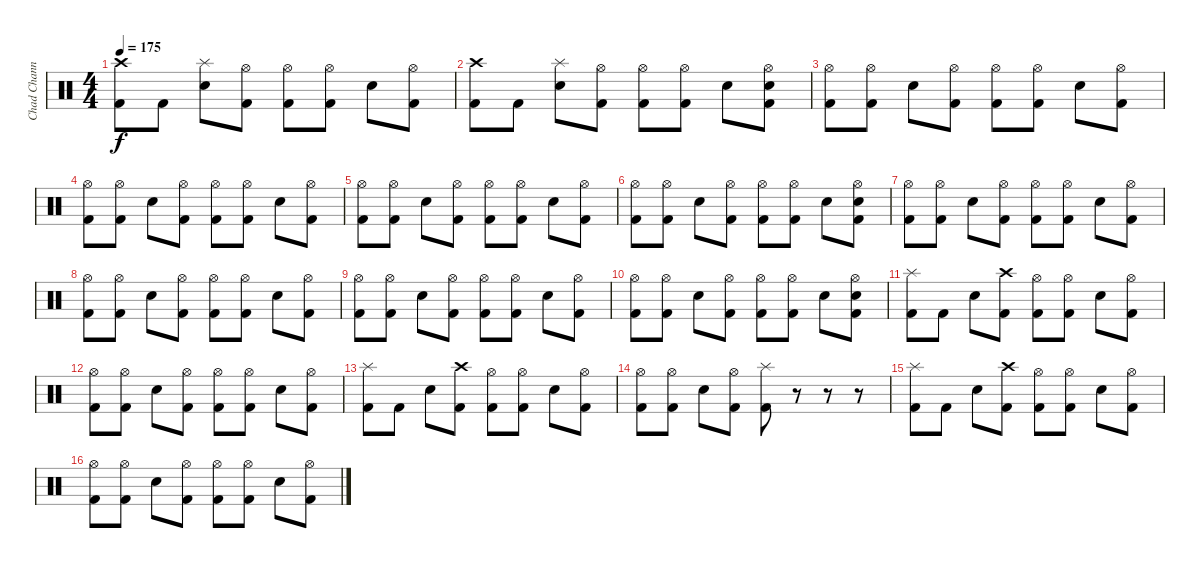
\track ("Chad Channing" "Chad Chann") {instrument percussion}
\staff {score}
\articulation defaults
\ts (4 4)
\tempo 175
\clef neutral
\ks c
("Crash high (hit)" "Kick (hit) 2").8{dy f} "Kick (hit) 2".8 ("Splash (hit)" "Snare (hit) 2").8 ("Hi-Hat (open)" "Kick (hit) 2").8 ("Hi-Hat (open)" "Kick (hit) 2").8 ("Hi-Hat (open)" "Kick (hit) 2").8 "Snare (hit) 2".8 ("Hi-Hat (open)" "Kick (hit) 2").8 |
("Crash high (hit)" "Kick (hit) 2").8 "Kick (hit) 2".8 ("Splash (hit)" "Snare (hit) 2").8 ("Hi-Hat (open)" "Kick (hit) 2").8 ("Hi-Hat (open)" "Kick (hit) 2").8 ("Hi-Hat (open)" "Kick (hit) 2").8 "Snare (hit) 2".8 ("Hi-Hat (open)" "Snare (hit) 2" "Kick (hit) 2").8 |
("Hi-Hat (open)" "Kick (hit) 2").8 ("Hi-Hat (open)" "Kick (hit) 2").8 "Snare (hit) 2".8 ("Hi-Hat (open)" "Kick (hit) 2").8 ("Hi-Hat (open)" "Kick (hit) 2").8 ("Hi-Hat (open)" "Kick (hit) 2").8 "Snare (hit) 2".8 ("Hi-Hat (open)" "Kick (hit) 2").8 |
("Hi-Hat (open)" "Kick (hit) 2").8 ("Hi-Hat (open)" "Kick (hit) 2").8 "Snare (hit) 2".8 ("Hi-Hat (open)" "Kick (hit) 2").8 ("Hi-Hat (open)" "Kick (hit) 2").8 ("Hi-Hat (open)" "Kick (hit) 2").8 "Snare (hit) 2".8 ("Hi-Hat (open)" "Kick (hit) 2").8 |
("Hi-Hat (open)" "Kick (hit) 2").8 ("Hi-Hat (open)" "Kick (hit) 2").8 "Snare (hit) 2".8 ("Hi-Hat (open)" "Kick (hit) 2").8 ("Hi-Hat (open)" "Kick (hit) 2").8 ("Hi-Hat (open)" "Kick (hit) 2").8 "Snare (hit) 2".8 ("Hi-Hat (open)" "Kick (hit) 2").8 |
("Hi-Hat (open)" "Kick (hit) 2").8 ("Hi-Hat (open)" "Kick (hit) 2").8 "Snare (hit) 2".8 ("Hi-Hat (open)" "Kick (hit) 2").8 ("Hi-Hat (open)" "Kick (hit) 2").8 ("Hi-Hat (open)" "Kick (hit) 2").8 "Snare (hit) 2".8 ("Hi-Hat (open)" "Snare (hit) 2" "Kick (hit) 2").8 |
("Hi-Hat (open)" "Kick (hit) 2").8 ("Hi-Hat (open)" "Kick (hit) 2").8 "Snare (hit) 2".8 ("Hi-Hat (open)" "Kick (hit) 2").8 ("Hi-Hat (open)" "Kick (hit) 2").8 ("Hi-Hat (open)" "Kick (hit) 2").8 "Snare (hit) 2".8 ("Hi-Hat (open)" "Kick (hit) 2").8 |
("Hi-Hat (open)" "Kick (hit) 2").8 ("Hi-Hat (open)" "Kick (hit) 2").8 "Snare (hit) 2".8 ("Hi-Hat (open)" "Kick (hit) 2").8 ("Hi-Hat (open)" "Kick (hit) 2").8 ("Hi-Hat (open)" "Kick (hit) 2").8 "Snare (hit) 2".8 ("Hi-Hat (open)" "Kick (hit) 2").8 |
("Hi-Hat (open)" "Kick (hit) 2").8 ("Hi-Hat (open)" "Kick (hit) 2").8 "Snare (hit) 2".8 ("Hi-Hat (open)" "Kick (hit) 2").8 ("Hi-Hat (open)" "Kick (hit) 2").8 ("Hi-Hat (open)" "Kick (hit) 2").8 "Snare (hit) 2".8 ("Hi-Hat (open)" "Kick (hit) 2").8 |
("Hi-Hat (open)" "Kick (hit) 2").8 ("Hi-Hat (open)" "Kick (hit) 2").8 "Snare (hit) 2".8 ("Hi-Hat (open)" "Kick (hit) 2").8 ("Hi-Hat (open)" "Kick (hit) 2").8 ("Hi-Hat (open)" "Kick (hit) 2").8 "Snare (hit) 2".8 ("Hi-Hat (open)" "Snare (hit) 2" "Kick (hit) 2").8 |
("Splash (hit)" "Kick (hit) 2").8 "Kick (hit) 2".8 "Snare (hit) 2".8 ("Crash high (hit)" "Kick (hit) 2").8 ("Hi-Hat (open)" "Kick (hit) 2").8 ("Hi-Hat (open)" "Kick (hit) 2").8 "Snare (hit) 2".8 ("Hi-Hat (open)" "Kick (hit) 2").8 |
("Hi-Hat (open)" "Kick (hit) 2").8 ("Hi-Hat (open)" "Kick (hit) 2").8 "Snare (hit) 2".8 ("Hi-Hat (open)" "Kick (hit) 2").8 ("Hi-Hat (open)" "Kick (hit) 2").8 ("Hi-Hat (open)" "Kick (hit) 2").8 "Snare (hit) 2".8 ("Hi-Hat (open)" "Kick (hit) 2").8 |
("Splash (hit)" "Kick (hit) 2").8 "Kick (hit) 2".8 "Snare (hit) 2".8 ("Crash high (hit)" "Kick (hit) 2").8 ("Hi-Hat (open)" "Kick (hit) 2").8 ("Hi-Hat (open)" "Kick (hit) 2").8 "Snare (hit) 2".8 ("Hi-Hat (open)" "Kick (hit) 2").8 |
("Hi-Hat (open)" "Kick (hit) 2").8 ("Hi-Hat (open)" "Kick (hit) 2").8 "Snare (hit) 2".8 ("Hi-Hat (open)" "Kick (hit) 2").8 ("Splash (hit)" "Kick (hit) 2").8 r.8 r.8 r.8 |
("Splash (hit)" "Kick (hit) 2").8 "Kick (hit) 2".8 "Snare (hit) 2".8 ("Crash high (hit)" "Kick (hit) 2").8 ("Hi-Hat (open)" "Kick (hit) 2").8 ("Hi-Hat (open)" "Kick (hit) 2").8 "Snare (hit) 2".8 ("Hi-Hat (open)" "Kick (hit) 2").8 |
("Hi-Hat (open)" "Kick (hit) 2").8 ("Hi-Hat (open)" "Kick (hit) 2").8 "Snare (hit) 2".8 ("Hi-Hat (open)" "Kick (hit) 2").8 ("Hi-Hat (open)" "Kick (hit) 2").8 ("Hi-Hat (open)" "Kick (hit) 2").8 "Snare (hit) 2".8 ("Hi-Hat (open)" "Kick (hit) 2").8
